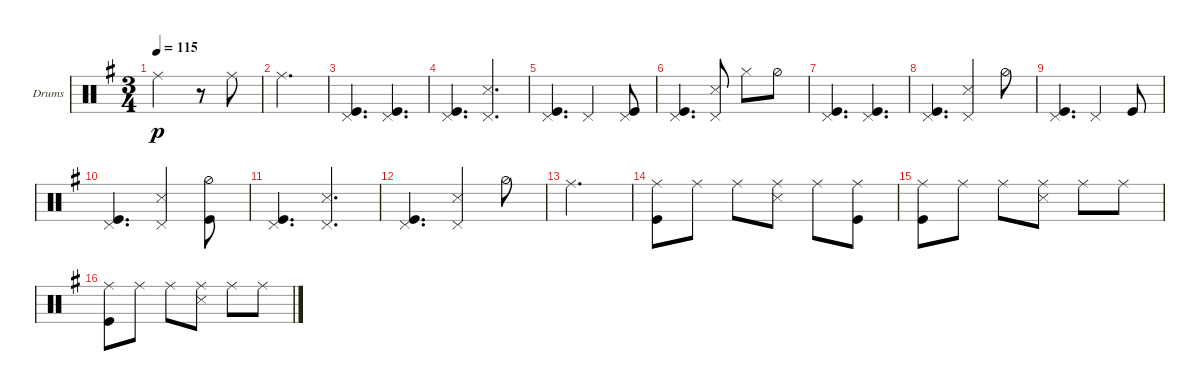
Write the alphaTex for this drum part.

\defaultSystemsLayout 4
\bracketExtendMode groupsimilarinstruments
\firstSystemTrackNameOrientation horizontal
\otherSystemsTrackNameOrientation horizontal
\track ("Drumkit" "Drums") {multiBarRest instrument percussion}
\staff {score}
\articulation defaults
\ts (3 4)
\tempo 115
\clef neutral
\ks eminor "Ride (middle)".2{dy p}
r.8 "Ride (middle)".8 |
"Ride (middle)".2{d} |
("Kick (hit)" "Pedal Hi-Hat (hit)").4{d} ("Kick (hit)" "Pedal Hi-Hat (hit)").4{d} |
("Kick (hit)" "Pedal Hi-Hat (hit)").4{d} ("Snare (side stick) 3" "Pedal Hi-Hat (hit)").4{d} |
("Kick (hit)" "Pedal Hi-Hat (hit)").4{d} "Pedal Hi-Hat (hit)".4 ("Kick (hit)" "Pedal Hi-Hat (hit)").8 |
("Pedal Hi-Hat (hit)" "Kick (hit)").4{d} ("Pedal Hi-Hat (hit)" "Snare (side stick) 3").8 "Hi-Hat (closed)".8 "Hi-Hat (half)".8 |
("Kick (hit)" "Pedal Hi-Hat (hit)").4{d} ("Kick (hit)" "Pedal Hi-Hat (hit)").4{d} |
("Kick (hit)" "Pedal Hi-Hat (hit)").4{d} ("Pedal Hi-Hat (hit)" "Snare (side stick) 3").4 "Hi-Hat (half)".8 |
("Kick (hit)" "Pedal Hi-Hat (hit)").4{d} "Pedal Hi-Hat (hit)".4 "Kick (hit)".8 |
("Kick (hit)" "Pedal Hi-Hat (hit)").4{d} ("Pedal Hi-Hat (hit)" "Snare (side stick) 3").4 ("Hi-Hat (half)" "Kick (hit)").8 |
("Kick (hit)" "Pedal Hi-Hat (hit)").4{d} ("Pedal Hi-Hat (hit)" "Snare (side stick) 3").4{d} |
("Kick (hit)" "Pedal Hi-Hat (hit)").4{d} ("Snare (side stick) 3" "Pedal Hi-Hat (hit)").4 "Hi-Hat (half)".8 |
"Ride (middle)".2{d} |
("Kick (hit)" "Ride (middle)").8 "Ride (middle)".8 "Ride (middle)".8 ("Ride (middle)" "Snare (side stick) 3").8 "Ride (middle)".8 ("Ride (middle)" "Kick (hit)").8 |
("Kick (hit)" "Ride (middle)").8 "Ride (middle)".8 "Ride (middle)".8 ("Ride (middle)" "Snare (side stick) 3").8 "Ride (middle)".8 "Ride (middle)".8 |
("Kick (hit)" "Ride (middle)").8 "Ride (middle)".8 "Ride (middle)".8 ("Ride (middle)" "Snare (side stick) 3").8 "Ride (middle)".8 "Ride (middle)".8
